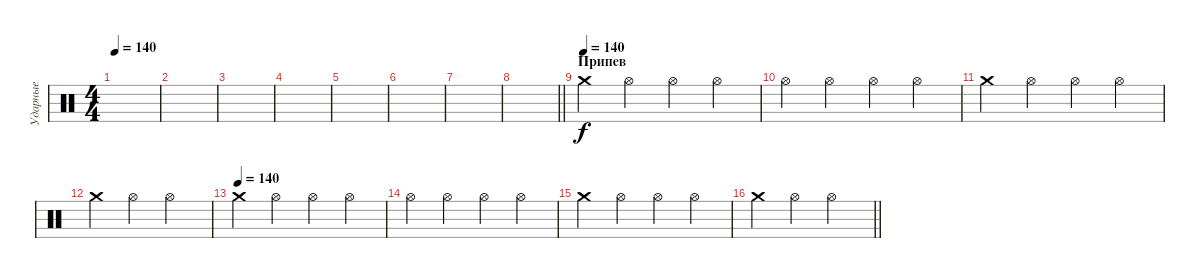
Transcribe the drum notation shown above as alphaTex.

\track ("Ударные" "Ударные") {instrument percussion}
\staff {score}
\articulation defaults
\ts (4 4)
\tempo 140
\clef neutral
\ks c
|
|
|
|
|
|
|
\barLineRight lightlight
|
\section ("" "Припев")
\tempo (140)
"Crash medium (hit)".4 "Hi-Hat (open)".4 "Hi-Hat (open)".4 "Hi-Hat (open)".4 |
"Hi-Hat (open)".4 "Hi-Hat (open)".4 "Hi-Hat (open)".4 "Hi-Hat (open)".4 |
"Crash medium (hit)".4 "Hi-Hat (open)".4 "Hi-Hat (open)".4 "Hi-Hat (open)".4 |
"Crash medium (hit)".4 "Hi-Hat (open)".4 "Hi-Hat (open)".2 |
\tempo (140)
"Crash medium (hit)".4 "Hi-Hat (open)".4 "Hi-Hat (open)".4 "Hi-Hat (open)".4 |
"Hi-Hat (open)".4 "Hi-Hat (open)".4 "Hi-Hat (open)".4 "Hi-Hat (open)".4 |
"Crash medium (hit)".4 "Hi-Hat (open)".4 "Hi-Hat (open)".4 "Hi-Hat (open)".4 |
\barLineRight lightlight "Crash medium (hit)".4 "Hi-Hat (open)".4 "Hi-Hat (open)".2
